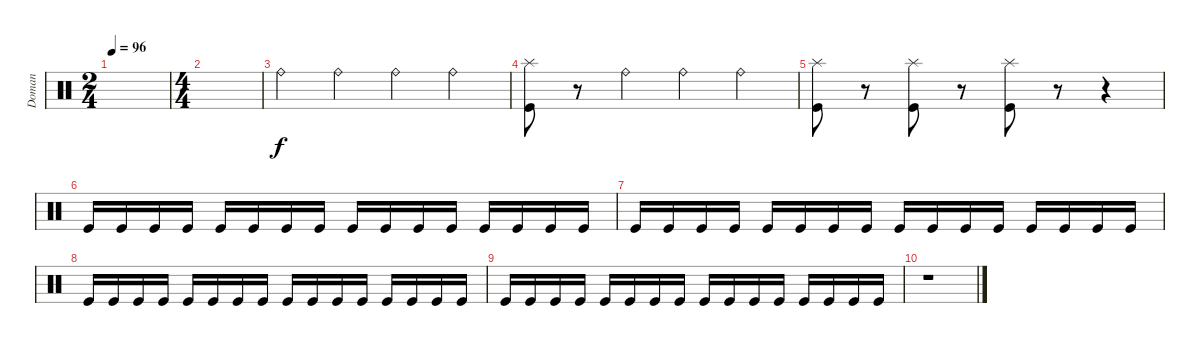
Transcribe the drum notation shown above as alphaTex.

\track ("Doman" "Doman") {instrument percussion}
\staff {score}
\articulation defaults
\ts (2 4)
\tempo 96
\clef neutral
\ks c
|
\ts (4 4)
|
"Ride (bell)".4 "Ride (bell)".4 "Ride (bell)".4 "Ride (bell)".4 |
("Splash (hit)" "Kick (hit)").8 r.8 "Ride (bell)".4 "Ride (bell)".4 "Ride (bell)".4 |
("Splash (hit)" "Kick (hit)").8 r.8 ("Splash (hit)" "Kick (hit)").8 r.8 ("Splash (hit)" "Kick (hit)").8 r.8 r.4 |
"Kick (hit)".16 "Kick (hit)".16 "Kick (hit)".16 "Kick (hit)".16 "Kick (hit)".16 "Kick (hit)".16 "Kick (hit)".16 "Kick (hit)".16 "Kick (hit)".16 "Kick (hit)".16 "Kick (hit)".16 "Kick (hit)".16 "Kick (hit)".16 "Kick (hit)".16 "Kick (hit)".16 "Kick (hit)".16 |
"Kick (hit)".16 "Kick (hit)".16 "Kick (hit)".16 "Kick (hit)".16 "Kick (hit)".16 "Kick (hit)".16 "Kick (hit)".16 "Kick (hit)".16 "Kick (hit)".16 "Kick (hit)".16 "Kick (hit)".16 "Kick (hit)".16 "Kick (hit)".16 "Kick (hit)".16 "Kick (hit)".16 "Kick (hit)".16 |
"Kick (hit)".16 "Kick (hit)".16 "Kick (hit)".16 "Kick (hit)".16 "Kick (hit)".16 "Kick (hit)".16 "Kick (hit)".16 "Kick (hit)".16 "Kick (hit)".16 "Kick (hit)".16 "Kick (hit)".16 "Kick (hit)".16 "Kick (hit)".16 "Kick (hit)".16 "Kick (hit)".16 "Kick (hit)".16 |
"Kick (hit)".16 "Kick (hit)".16 "Kick (hit)".16 "Kick (hit)".16 "Kick (hit)".16 "Kick (hit)".16 "Kick (hit)".16 "Kick (hit)".16 "Kick (hit)".16 "Kick (hit)".16 "Kick (hit)".16 "Kick (hit)".16 "Kick (hit)".16 "Kick (hit)".16 "Kick (hit)".16 "Kick (hit)".16 |
r.1
